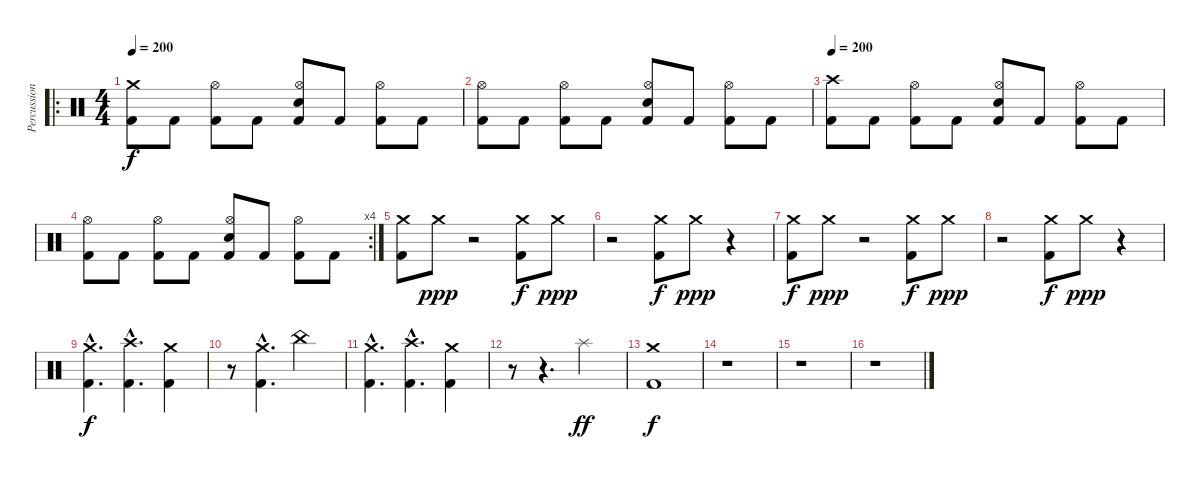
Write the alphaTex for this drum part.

\track ("Percussions" "Percussion") {instrument percussion}
\staff {score}
\articulation defaults
\ro
\ts (4 4)
\tempo 200
\clef neutral
\ks c
("Crash medium (hit)" "Kick (hit) 2").8{dy f} "Kick (hit) 2".8 ("Hi-Hat (open)" "Kick (hit) 2").8 "Kick (hit) 2".8 ("Hi-Hat (open)" "Electric Snare (hit)" "Kick (hit) 2").8 "Kick (hit) 2".8 ("Hi-Hat (open)" "Kick (hit) 2").8 "Kick (hit) 2".8 |
("Hi-Hat (open)" "Kick (hit) 2").8 "Kick (hit) 2".8 ("Hi-Hat (open)" "Kick (hit) 2").8 "Kick (hit) 2".8 ("Hi-Hat (open)" "Electric Snare (hit)" "Kick (hit) 2").8 "Kick (hit) 2".8 ("Hi-Hat (open)" "Kick (hit) 2").8 "Kick (hit) 2".8 |
\tempo 200
("Crash high (hit)" "Kick (hit) 2").8 "Kick (hit) 2".8 ("Hi-Hat (open)" "Kick (hit) 2").8 "Kick (hit) 2".8 ("Hi-Hat (open)" "Electric Snare (hit)" "Kick (hit) 2").8 "Kick (hit) 2".8 ("Hi-Hat (open)" "Kick (hit) 2").8 "Kick (hit) 2".8 |
\rc 4
("Hi-Hat (open)" "Kick (hit) 2").8 "Kick (hit) 2".8 ("Hi-Hat (open)" "Kick (hit) 2").8 "Kick (hit) 2".8 ("Hi-Hat (open)" "Electric Snare (hit)" "Kick (hit) 2").8 "Kick (hit) 2".8 ("Hi-Hat (open)" "Kick (hit) 2").8 "Kick (hit) 2".8 |
("Crash medium (hit)" "Kick (hit) 2").8 "Crash medium (hit)".8{dy ppp} r.2 ("Crash medium (hit)" "Kick (hit) 2").8{dy f} "Crash medium (hit)".8{dy ppp} |
r.2 ("Crash medium (hit)" "Kick (hit) 2").8{dy f} "Crash medium (hit)".8{dy ppp} r.4 |
("Crash medium (hit)" "Kick (hit) 2").8{dy f} "Crash medium (hit)".8{dy ppp} r.2 ("Crash medium (hit)" "Kick (hit) 2").8{dy f} "Crash medium (hit)".8{dy ppp} |
r.2 ("Crash medium (hit)" "Kick (hit) 2").8{dy f} "Crash medium (hit)".8{dy ppp} r.4 |
("Crash medium (hit)"{hac} "Kick (hit) 2"{hac}).4{d dy f} ("Crash high (hit)"{hac} "Kick (hit) 2"{hac}).4{d} ("Crash medium (hit)" "Kick (hit) 2").4 |
r.8 ("Crash medium (hit)"{hac} "Kick (hit) 2"{hac}).4{d} "China (hit)".2 |
("Crash medium (hit)"{hac} "Kick (hit) 2"{hac}).4{d} ("Crash high (hit)"{hac} "Kick (hit) 2"{hac}).4{d} ("Crash medium (hit)" "Kick (hit) 2").4 |
r.8 r.4{d} "Splash (hit)".2{dy ff} |
("Crash medium (hit)" "Kick (hit) 2").1{dy f} |
r.1 |
r.1 |
r.1
